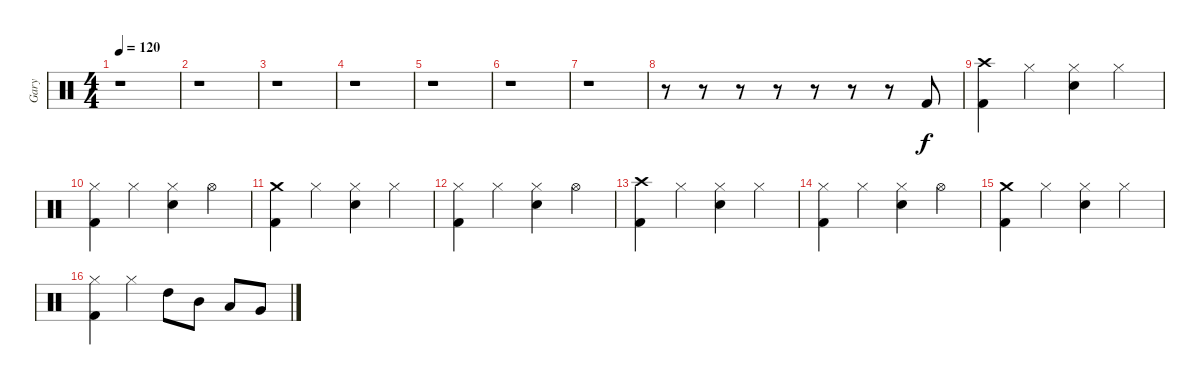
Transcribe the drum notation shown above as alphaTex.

\track ("Gary" "Gary") {instrument percussion}
\staff {score}
\articulation defaults
\ts (4 4)
\tempo 120
\clef neutral
\ks c
r.1{dy f} |
r.1 |
r.1 |
r.1 |
r.1 |
r.1 |
r.1 |
r.8 r.8 r.8 r.8 r.8 r.8 r.8 "Kick (hit) 2".8 |
("Crash high (hit)" "Kick (hit) 2").4 "Hi-Hat (closed)".4 ("Hi-Hat (closed)" "Snare (hit) 2").4 "Hi-Hat (closed)".4 |
("Hi-Hat (closed)" "Kick (hit) 2").4 "Hi-Hat (closed)".4 ("Hi-Hat (closed)" "Snare (hit) 2").4 "Hi-Hat (open)".4 |
("Crash medium (hit)" "Kick (hit) 2").4 "Hi-Hat (closed)".4 ("Hi-Hat (closed)" "Snare (hit) 2").4 "Hi-Hat (closed)".4 |
("Hi-Hat (closed)" "Kick (hit) 2").4 "Hi-Hat (closed)".4 ("Hi-Hat (closed)" "Snare (hit) 2").4 "Hi-Hat (open)".4 |
("Crash high (hit)" "Kick (hit) 2").4 "Hi-Hat (closed)".4 ("Hi-Hat (closed)" "Snare (hit) 2").4 "Hi-Hat (closed)".4 |
("Hi-Hat (closed)" "Kick (hit) 2").4 "Hi-Hat (closed)".4 ("Hi-Hat (closed)" "Snare (hit) 2").4 "Hi-Hat (open)".4 |
("Crash medium (hit)" "Kick (hit) 2").4 "Hi-Hat (closed)".4 ("Hi-Hat (closed)" "Snare (hit) 2").4 "Hi-Hat (closed)".4 |
("Hi-Hat (closed)" "Kick (hit) 2").4 "Hi-Hat (closed)".4 "High Tom (hit)".8 "Mid Tom (hit)".8 "Low Tom (hit)".8 "Very Low Tom (hit)".8
